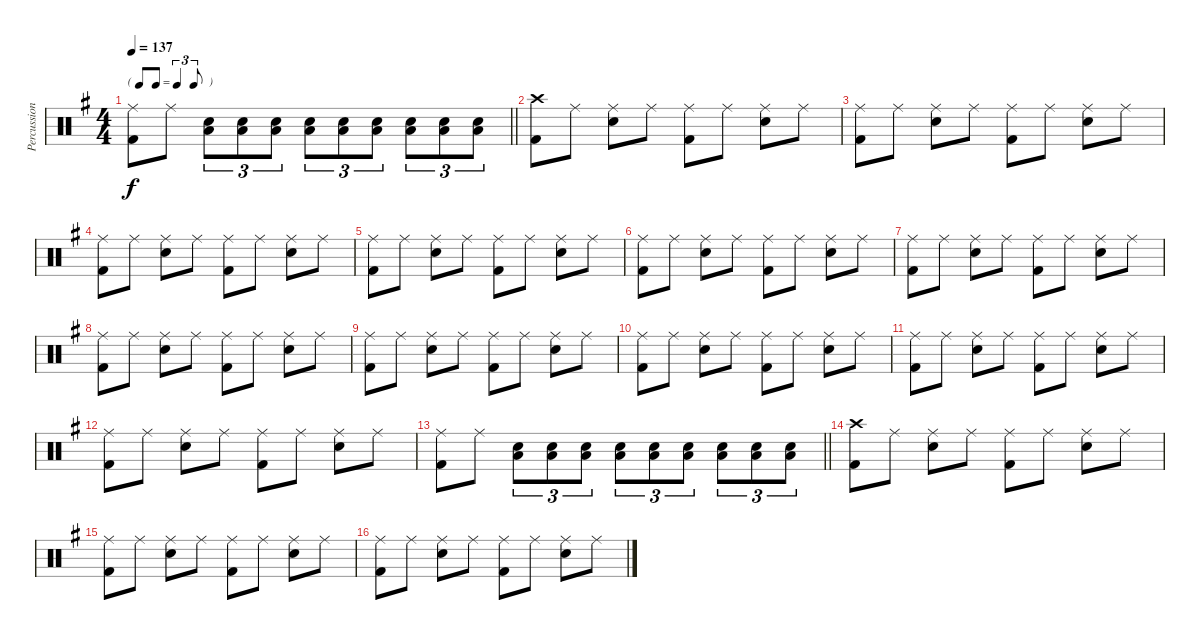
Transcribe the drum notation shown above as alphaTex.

\track ("Percussion" "Percussion") {instrument percussion}
\staff {score}
\articulation defaults
\ts (4 4)
\tf triplet8th
\tempo 137
\clef neutral
\barLineRight lightlight
\ks g
("Ride (middle)" "Kick (hit) 2").8{dy f} "Ride (middle)".8 ("Snare (hit) 2" "Low Floor Tom (hit)").8{tu (3 2)} ("Snare (hit) 2" "Low Floor Tom (hit)").8{tu (3 2)} ("Snare (hit) 2" "Low Floor Tom (hit)").8{tu (3 2)} ("Snare (hit) 2" "Low Floor Tom (hit)").8{tu (3 2)} ("Snare (hit) 2" "Low Floor Tom (hit)").8{tu (3 2)} ("Snare (hit) 2" "Low Floor Tom (hit)").8{tu (3 2)} ("Snare (hit) 2" "Low Floor Tom (hit)").8{tu (3 2)} ("Snare (hit) 2" "Low Floor Tom (hit)").8{tu (3 2)} ("Snare (hit) 2" "Low Floor Tom (hit)").8{tu (3 2)} |
("Crash high (hit)" "Kick (hit) 2").8 "Ride (middle)".8 ("Ride (middle)" "Snare (hit) 2").8 "Ride (middle)".8 ("Ride (middle)" "Kick (hit) 2").8 "Ride (middle)".8 ("Ride (middle)" "Snare (hit) 2").8 "Ride (middle)".8 |
("Ride (middle)" "Kick (hit) 2").8 "Ride (middle)".8 ("Ride (middle)" "Snare (hit) 2").8 "Ride (middle)".8 ("Ride (middle)" "Kick (hit) 2").8 "Ride (middle)".8 ("Ride (middle)" "Snare (hit) 2").8 "Ride (middle)".8 |
("Ride (middle)" "Kick (hit) 2").8 "Ride (middle)".8 ("Ride (middle)" "Snare (hit) 2").8 "Ride (middle)".8 ("Ride (middle)" "Kick (hit) 2").8 "Ride (middle)".8 ("Ride (middle)" "Snare (hit) 2").8 "Ride (middle)".8 |
("Ride (middle)" "Kick (hit) 2").8 "Ride (middle)".8 ("Ride (middle)" "Snare (hit) 2").8 "Ride (middle)".8 ("Ride (middle)" "Kick (hit) 2").8 "Ride (middle)".8 ("Ride (middle)" "Snare (hit) 2").8 "Ride (middle)".8 |
("Ride (middle)" "Kick (hit) 2").8 "Ride (middle)".8 ("Ride (middle)" "Snare (hit) 2").8 "Ride (middle)".8 ("Ride (middle)" "Kick (hit) 2").8 "Ride (middle)".8 ("Ride (middle)" "Snare (hit) 2").8 "Ride (middle)".8 |
("Ride (middle)" "Kick (hit) 2").8 "Ride (middle)".8 ("Ride (middle)" "Snare (hit) 2").8 "Ride (middle)".8 ("Ride (middle)" "Kick (hit) 2").8 "Ride (middle)".8 ("Ride (middle)" "Snare (hit) 2").8 "Ride (middle)".8 |
("Ride (middle)" "Kick (hit) 2").8 "Ride (middle)".8 ("Ride (middle)" "Snare (hit) 2").8 "Ride (middle)".8 ("Ride (middle)" "Kick (hit) 2").8 "Ride (middle)".8 ("Ride (middle)" "Snare (hit) 2").8 "Ride (middle)".8 |
("Ride (middle)" "Kick (hit) 2").8 "Ride (middle)".8 ("Ride (middle)" "Snare (hit) 2").8 "Ride (middle)".8 ("Ride (middle)" "Kick (hit) 2").8 "Ride (middle)".8 ("Ride (middle)" "Snare (hit) 2").8 "Ride (middle)".8 |
("Ride (middle)" "Kick (hit) 2").8 "Ride (middle)".8 ("Ride (middle)" "Snare (hit) 2").8 "Ride (middle)".8 ("Ride (middle)" "Kick (hit) 2").8 "Ride (middle)".8 ("Ride (middle)" "Snare (hit) 2").8 "Ride (middle)".8 |
("Ride (middle)" "Kick (hit) 2").8 "Ride (middle)".8 ("Ride (middle)" "Snare (hit) 2").8 "Ride (middle)".8 ("Ride (middle)" "Kick (hit) 2").8 "Ride (middle)".8 ("Ride (middle)" "Snare (hit) 2").8 "Ride (middle)".8 |
("Ride (middle)" "Kick (hit) 2").8 "Ride (middle)".8 ("Ride (middle)" "Snare (hit) 2").8 "Ride (middle)".8 ("Ride (middle)" "Kick (hit) 2").8 "Ride (middle)".8 ("Ride (middle)" "Snare (hit) 2").8 "Ride (middle)".8 |
\barLineRight lightlight
("Ride (middle)" "Kick (hit) 2").8 "Ride (middle)".8 ("Snare (hit) 2" "Low Floor Tom (hit)").8{tu (3 2)} ("Snare (hit) 2" "Low Floor Tom (hit)").8{tu (3 2)} ("Snare (hit) 2" "Low Floor Tom (hit)").8{tu (3 2)} ("Snare (hit) 2" "Low Floor Tom (hit)").8{tu (3 2)} ("Snare (hit) 2" "Low Floor Tom (hit)").8{tu (3 2)} ("Snare (hit) 2" "Low Floor Tom (hit)").8{tu (3 2)} ("Snare (hit) 2" "Low Floor Tom (hit)").8{tu (3 2)} ("Snare (hit) 2" "Low Floor Tom (hit)").8{tu (3 2)} ("Snare (hit) 2" "Low Floor Tom (hit)").8{tu (3 2)} |
("Crash high (hit)" "Kick (hit) 2").8 "Ride (middle)".8 ("Ride (middle)" "Snare (hit) 2").8 "Ride (middle)".8 ("Ride (middle)" "Kick (hit) 2").8 "Ride (middle)".8 ("Ride (middle)" "Snare (hit) 2").8 "Ride (middle)".8 |
("Ride (middle)" "Kick (hit) 2").8 "Ride (middle)".8 ("Ride (middle)" "Snare (hit) 2").8 "Ride (middle)".8 ("Ride (middle)" "Kick (hit) 2").8 "Ride (middle)".8 ("Ride (middle)" "Snare (hit) 2").8 "Ride (middle)".8 |
("Ride (middle)" "Kick (hit) 2").8 "Ride (middle)".8 ("Ride (middle)" "Snare (hit) 2").8 "Ride (middle)".8 ("Ride (middle)" "Kick (hit) 2").8 "Ride (middle)".8 ("Ride (middle)" "Snare (hit) 2").8 "Ride (middle)".8
